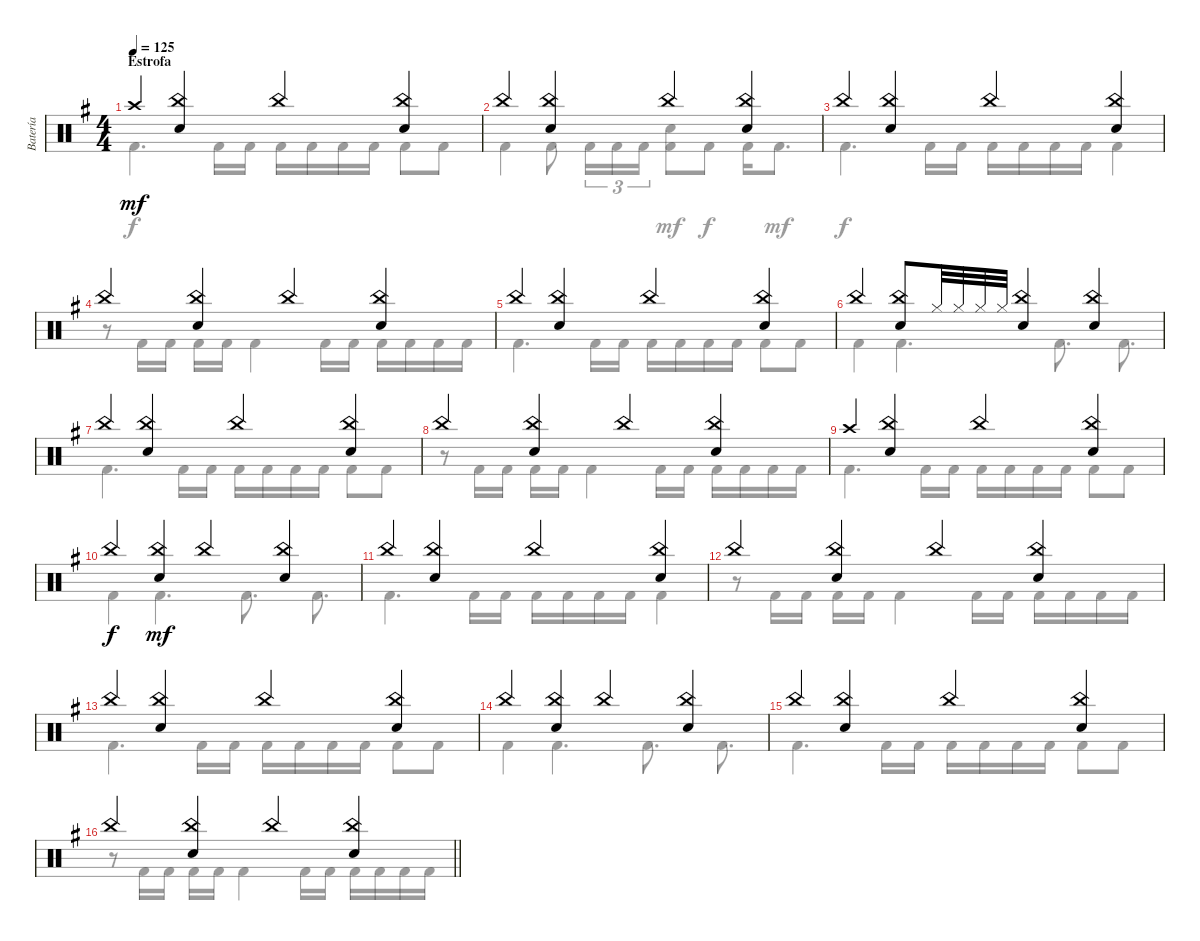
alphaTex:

\track ("Batería" "Batería") {instrument percussion}
\staff {score}
\articulation defaults
\voice
\ts (4 4)
\section ("" "Estrofa")
\tempo 125
\clef neutral
\ks g "Crash high (hit)".4{dy mf volume 13}
("China (hit)" "Snare (hit) 2").4 "China (hit)".4 ("China (hit)" "Snare (hit) 2").4 |
"China (hit)".4 ("China (hit)" "Snare (hit) 2").4 "China (hit)".4 ("China (hit)" "Snare (hit) 2").4 |
"China (hit)".4 ("China (hit)" "Snare (hit) 2").4 "China (hit)".4 ("China (hit)" "Snare (hit) 2").4 |
"China (hit)".4 ("China (hit)" "Snare (hit) 2").4 "China (hit)".4 ("China (hit)" "Snare (hit) 2").4 |
"China (hit)".4 ("China (hit)" "Snare (hit) 2").4 "China (hit)".4 ("China (hit)" "Snare (hit) 2").4 |
"China (hit)".4 ("China (hit)" "Snare (hit) 2").8 "Hi-Hat (closed)".32 "Hi-Hat (closed)".32 "Hi-Hat (closed)".32 "Hi-Hat (closed)".32 ("China (hit)" "Snare (hit) 2").4 ("China (hit)" "Snare (hit) 2").4 |
"China (hit)".4 ("China (hit)" "Snare (hit) 2").4 "China (hit)".4 ("China (hit)" "Snare (hit) 2").4 |
"China (hit)".4 ("China (hit)" "Snare (hit) 2").4 "China (hit)".4 ("China (hit)" "Snare (hit) 2").4 |
"Crash high (hit)".4{volume 13} ("China (hit)" "Snare (hit) 2").4 "China (hit)".4 ("China (hit)" "Snare (hit) 2").4 |
"China (hit)".4{dy f} ("China (hit)" "Snare (hit) 2").4{dy mf} "China (hit)".4 ("China (hit)" "Snare (hit) 2").4 |
"China (hit)".4 ("China (hit)" "Snare (hit) 2").4 "China (hit)".4 ("China (hit)" "Snare (hit) 2").4 |
"China (hit)".4 ("China (hit)" "Snare (hit) 2").4 "China (hit)".4 ("China (hit)" "Snare (hit) 2").4 |
"China (hit)".4 ("China (hit)" "Snare (hit) 2").4 "China (hit)".4 ("China (hit)" "Snare (hit) 2").4 |
"China (hit)".4 ("China (hit)" "Snare (hit) 2").4 "China (hit)".4 ("China (hit)" "Snare (hit) 2").4 |
"China (hit)".4 ("China (hit)" "Snare (hit) 2").4 "China (hit)".4 ("China (hit)" "Snare (hit) 2").4 |
\barLineRight lightlight "China (hit)".4
("China (hit)" "Snare (hit) 2").4 "China (hit)".4 ("China (hit)" "Snare (hit) 2").4
\voice
\clef neutral
\ottava regular
\simile none
\ks g "Kick (hit) 2".4{d dy f} "Kick (hit) 2".16 "Kick (hit) 2".16 "Kick (hit) 2".16 "Kick (hit) 2".16 "Kick (hit) 2".16 "Kick (hit) 2".16 "Kick (hit) 2".8 "Kick (hit) 2".8
|
"Kick (hit) 2".4 "Kick (hit) 2".8 "Kick (hit) 2".16{tu (3 2)} "Kick (hit) 2".16{tu (3 2)} "Kick (hit) 2".16{tu (3 2)} ("Snare (hit) 2" "Kick (hit) 2").8{dy mf} "Kick (hit) 2".8{dy f} "Kick (hit) 2".16 "Kick (hit) 2".8{d dy mf} |
"Kick (hit) 2".4{d dy f} "Kick (hit) 2".16 "Kick (hit) 2".16 "Kick (hit) 2".16 "Kick (hit) 2".16 "Kick (hit) 2".16 "Kick (hit) 2".16 "Kick (hit) 2".4 |
r.8 "Kick (hit) 2".16 "Kick (hit) 2".16 "Kick (hit) 2".16 "Kick (hit) 2".16 "Kick (hit) 2".4 "Kick (hit) 2".16 "Kick (hit) 2".16 "Kick (hit) 2".16 "Kick (hit) 2".16 "Kick (hit) 2".16 "Kick (hit) 2".16 |
"Kick (hit) 2".4{d} "Kick (hit) 2".16 "Kick (hit) 2".16 "Kick (hit) 2".16 "Kick (hit) 2".16 "Kick (hit) 2".16 "Kick (hit) 2".16 "Kick (hit) 2".8 "Kick (hit) 2".8 |
"Kick (hit) 2".4 "Kick (hit) 2".4{d} "Kick (hit) 2".8{d} "Kick (hit) 2".8{d} |
"Kick (hit) 2".4{d} "Kick (hit) 2".16 "Kick (hit) 2".16 "Kick (hit) 2".16 "Kick (hit) 2".16 "Kick (hit) 2".16 "Kick (hit) 2".16 "Kick (hit) 2".8 "Kick (hit) 2".8 |
r.8 "Kick (hit) 2".16 "Kick (hit) 2".16 "Kick (hit) 2".16 "Kick (hit) 2".16 "Kick (hit) 2".4 "Kick (hit) 2".16 "Kick (hit) 2".16 "Kick (hit) 2".16 "Kick (hit) 2".16 "Kick (hit) 2".16 "Kick (hit) 2".16 |
"Kick (hit) 2".4{d} "Kick (hit) 2".16 "Kick (hit) 2".16 "Kick (hit) 2".16 "Kick (hit) 2".16 "Kick (hit) 2".16 "Kick (hit) 2".16 "Kick (hit) 2".8 "Kick (hit) 2".8 |
"Kick (hit) 2".4 "Kick (hit) 2".4{d} "Kick (hit) 2".8{d} "Kick (hit) 2".8{d} |
"Kick (hit) 2".4{d} "Kick (hit) 2".16 "Kick (hit) 2".16 "Kick (hit) 2".16 "Kick (hit) 2".16 "Kick (hit) 2".16 "Kick (hit) 2".16 "Kick (hit) 2".4 |
r.8 "Kick (hit) 2".16 "Kick (hit) 2".16 "Kick (hit) 2".16 "Kick (hit) 2".16 "Kick (hit) 2".4 "Kick (hit) 2".16 "Kick (hit) 2".16 "Kick (hit) 2".16 "Kick (hit) 2".16 "Kick (hit) 2".16 "Kick (hit) 2".16 |
"Kick (hit) 2".4{d} "Kick (hit) 2".16 "Kick (hit) 2".16 "Kick (hit) 2".16 "Kick (hit) 2".16 "Kick (hit) 2".16 "Kick (hit) 2".16 "Kick (hit) 2".8 "Kick (hit) 2".8 |
"Kick (hit) 2".4 "Kick (hit) 2".4{d} "Kick (hit) 2".8{d} "Kick (hit) 2".8{d} |
"Kick (hit) 2".4{d} "Kick (hit) 2".16 "Kick (hit) 2".16 "Kick (hit) 2".16 "Kick (hit) 2".16 "Kick (hit) 2".16 "Kick (hit) 2".16 "Kick (hit) 2".8 "Kick (hit) 2".8 |
\barLineRight lightlight
r.8 "Kick (hit) 2".16 "Kick (hit) 2".16 "Kick (hit) 2".16 "Kick (hit) 2".16 "Kick (hit) 2".4 "Kick (hit) 2".16 "Kick (hit) 2".16 "Kick (hit) 2".16 "Kick (hit) 2".16 "Kick (hit) 2".16 "Kick (hit) 2".16
